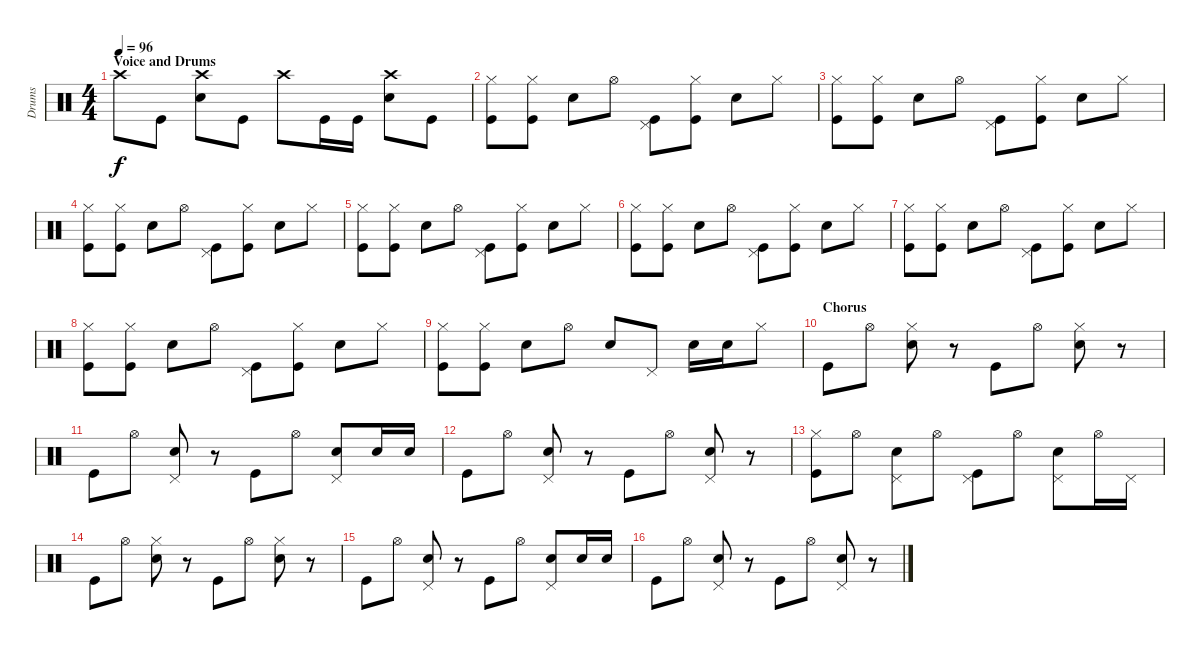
\track ("Drums" "Drums") {instrument percussion}
\staff {score}
\articulation defaults
\ts (4 4)
\section ("" "Voice and Drums")
\tempo 96
\clef neutral
\ks c "Crash high (hit)".8{dy f} "Kick (hit)".8
("Snare (hit) 2" "Crash high (hit)").8 "Kick (hit)".8 "Crash high (hit)".8 "Kick (hit)".16 "Kick (hit)".16 ("Snare (hit) 2" "Crash high (hit)").8 "Kick (hit)".8 |
("Hi-Hat (closed)" "Kick (hit)").8 ("Hi-Hat (closed)" "Kick (hit)").8 "Snare (hit) 2".8 "Hi-Hat (open)".8 ("Pedal Hi-Hat (hit)" "Kick (hit)").8 ("Hi-Hat (closed)" "Kick (hit)").8 "Snare (hit) 2".8 "Hi-Hat (closed)".8 |
("Hi-Hat (closed)" "Kick (hit)").8 ("Hi-Hat (closed)" "Kick (hit)").8 "Snare (hit) 2".8 "Hi-Hat (open)".8 ("Pedal Hi-Hat (hit)" "Kick (hit)").8 ("Hi-Hat (closed)" "Kick (hit)").8 "Snare (hit) 2".8 "Hi-Hat (closed)".8 |
("Hi-Hat (closed)" "Kick (hit)").8 ("Hi-Hat (closed)" "Kick (hit)").8 "Snare (hit) 2".8 "Hi-Hat (open)".8 ("Pedal Hi-Hat (hit)" "Kick (hit)").8 ("Hi-Hat (closed)" "Kick (hit)").8 "Snare (hit) 2".8 "Hi-Hat (closed)".8 |
("Hi-Hat (closed)" "Kick (hit)").8 ("Hi-Hat (closed)" "Kick (hit)").8 "Snare (hit) 2".8 "Hi-Hat (open)".8 ("Pedal Hi-Hat (hit)" "Kick (hit)").8 ("Hi-Hat (closed)" "Kick (hit)").8 "Snare (hit) 2".8 "Hi-Hat (closed)".8 |
("Hi-Hat (closed)" "Kick (hit)").8 ("Hi-Hat (closed)" "Kick (hit)").8 "Snare (hit) 2".8 "Hi-Hat (open)".8 ("Pedal Hi-Hat (hit)" "Kick (hit)").8 ("Hi-Hat (closed)" "Kick (hit)").8 "Snare (hit) 2".8 "Hi-Hat (closed)".8 |
("Hi-Hat (closed)" "Kick (hit)").8 ("Hi-Hat (closed)" "Kick (hit)").8 "Snare (hit) 2".8 "Hi-Hat (open)".8 ("Pedal Hi-Hat (hit)" "Kick (hit)").8 ("Hi-Hat (closed)" "Kick (hit)").8 "Snare (hit) 2".8 "Hi-Hat (closed)".8 |
("Hi-Hat (closed)" "Kick (hit)").8 ("Hi-Hat (closed)" "Kick (hit)").8 "Snare (hit) 2".8 "Hi-Hat (open)".8 ("Pedal Hi-Hat (hit)" "Kick (hit)").8 ("Hi-Hat (closed)" "Kick (hit)").8 "Snare (hit) 2".8 "Hi-Hat (closed)".8 |
("Hi-Hat (closed)" "Kick (hit)").8 ("Hi-Hat (closed)" "Kick (hit)").8 "Snare (hit) 2".8 "Hi-Hat (open)".8 "Snare (hit) 2".8 "Pedal Hi-Hat (hit)".8 "Snare (hit) 2".16 "Snare (hit) 2".16 "Hi-Hat (closed)".8 |
\section ("" "Chorus")
"Kick (hit)".8 "Hi-Hat (open)".8 ("Hi-Hat (closed)" "Snare (hit) 2").8 r.8 "Kick (hit)".8 "Hi-Hat (open)".8 ("Hi-Hat (closed)" "Snare (hit) 2").8 r.8 |
"Kick (hit)".8 "Hi-Hat (open)".8 ("Pedal Hi-Hat (hit)" "Snare (hit) 2").8 r.8 "Kick (hit)".8 "Hi-Hat (open)".8 ("Pedal Hi-Hat (hit)" "Snare (hit) 2").8 "Snare (hit) 2".16 "Snare (hit) 2".16 |
"Kick (hit)".8 "Hi-Hat (open)".8 ("Pedal Hi-Hat (hit)" "Snare (hit) 2").8 r.8 "Kick (hit)".8 "Hi-Hat (open)".8 ("Pedal Hi-Hat (hit)" "Snare (hit) 2").8 r.8 |
("Hi-Hat (closed)" "Kick (hit)").8 "Hi-Hat (open)".8 ("Pedal Hi-Hat (hit)" "Snare (hit) 2").8 "Hi-Hat (open)".8 ("Pedal Hi-Hat (hit)" "Kick (hit)").8 "Hi-Hat (open)".8 ("Pedal Hi-Hat (hit)" "Snare (hit) 2").8 "Hi-Hat (open)".16 "Pedal Hi-Hat (hit)".16 |
"Kick (hit)".8 "Hi-Hat (open)".8 ("Hi-Hat (closed)" "Snare (hit) 2").8 r.8 "Kick (hit)".8 "Hi-Hat (open)".8 ("Hi-Hat (closed)" "Snare (hit) 2").8 r.8 |
"Kick (hit)".8 "Hi-Hat (open)".8 ("Pedal Hi-Hat (hit)" "Snare (hit) 2").8 r.8 "Kick (hit)".8 "Hi-Hat (open)".8 ("Pedal Hi-Hat (hit)" "Snare (hit) 2").8 "Snare (hit) 2".16 "Snare (hit) 2".16 |
"Kick (hit)".8 "Hi-Hat (open)".8 ("Pedal Hi-Hat (hit)" "Snare (hit) 2").8 r.8 "Kick (hit)".8 "Hi-Hat (open)".8 ("Pedal Hi-Hat (hit)" "Snare (hit) 2").8 r.8
